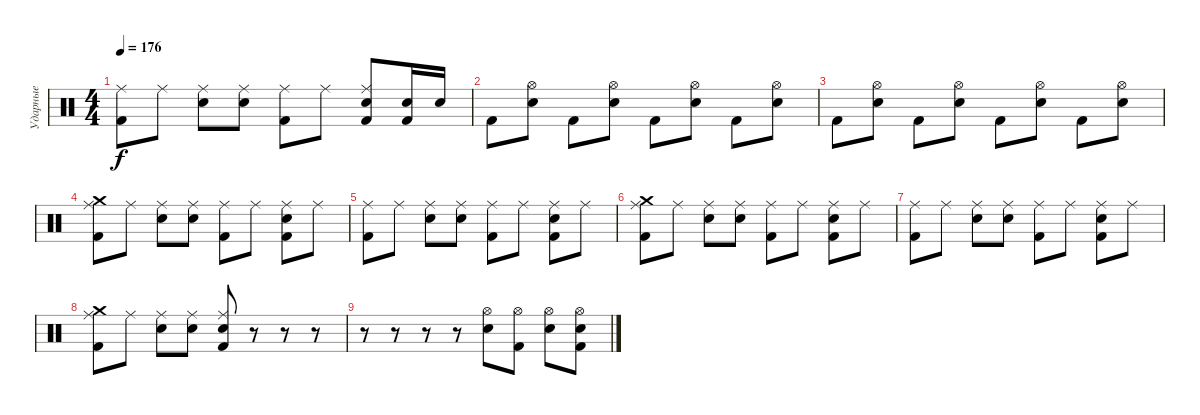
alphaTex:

\track ("Ударные" "Ударные") {instrument percussion}
\staff {score}
\articulation defaults
\ts (4 4)
\tempo 176
\clef neutral
\ks c
("Kick (hit) 2" "Ride (middle)").8{dy f} "Ride (middle)".8 ("Ride (middle)" "Electric Snare (hit)").8 ("Ride (middle)" "Electric Snare (hit)").8 ("Kick (hit) 2" "Ride (middle)").8 "Ride (middle)".8 ("Kick (hit) 2" "Ride (middle)" "Electric Snare (hit)").8 ("Kick (hit) 2" "Electric Snare (hit)").16 "Electric Snare (hit)".16 |
"Kick (hit) 2".8 ("Electric Snare (hit)" "Hi-Hat (open)").8 "Kick (hit) 2".8 ("Electric Snare (hit)" "Hi-Hat (open)").8 "Kick (hit) 2".8 ("Electric Snare (hit)" "Hi-Hat (open)").8 "Kick (hit) 2".8 ("Electric Snare (hit)" "Hi-Hat (open)").8 |
"Kick (hit) 2".8 ("Electric Snare (hit)" "Hi-Hat (open)").8 "Kick (hit) 2".8 ("Electric Snare (hit)" "Hi-Hat (open)").8 "Kick (hit) 2".8 ("Electric Snare (hit)" "Hi-Hat (open)").8 "Kick (hit) 2".8 ("Electric Snare (hit)" "Hi-Hat (open)").8 |
("Kick (hit) 2" "Ride (middle)" "Crash medium (hit)").8 "Ride (middle)".8 ("Ride (middle)" "Electric Snare (hit)").8 ("Ride (middle)" "Electric Snare (hit)").8 ("Kick (hit) 2" "Ride (middle)").8 "Ride (middle)".8 ("Kick (hit) 2" "Ride (middle)" "Electric Snare (hit)").8 "Ride (middle)".8 |
("Kick (hit) 2" "Ride (middle)").8 "Ride (middle)".8 ("Ride (middle)" "Electric Snare (hit)").8 ("Ride (middle)" "Electric Snare (hit)").8 ("Kick (hit) 2" "Ride (middle)").8 "Ride (middle)".8 ("Kick (hit) 2" "Ride (middle)" "Electric Snare (hit)").8 "Ride (middle)".8 |
("Kick (hit) 2" "Ride (middle)" "Crash medium (hit)").8 "Ride (middle)".8 ("Ride (middle)" "Electric Snare (hit)").8 ("Ride (middle)" "Electric Snare (hit)").8 ("Kick (hit) 2" "Ride (middle)").8 "Ride (middle)".8 ("Kick (hit) 2" "Ride (middle)" "Electric Snare (hit)").8 "Ride (middle)".8 |
("Kick (hit) 2" "Ride (middle)").8 "Ride (middle)".8 ("Ride (middle)" "Electric Snare (hit)").8 ("Ride (middle)" "Electric Snare (hit)").8 ("Kick (hit) 2" "Ride (middle)").8 "Ride (middle)".8 ("Kick (hit) 2" "Ride (middle)" "Electric Snare (hit)").8 "Ride (middle)".8 |
("Kick (hit) 2" "Ride (middle)" "Crash medium (hit)").8 "Ride (middle)".8 ("Ride (middle)" "Electric Snare (hit)").8 ("Ride (middle)" "Electric Snare (hit)").8 ("Kick (hit) 2" "Electric Snare (hit)" "Ride (middle)").8 r.8 r.8 r.8 |
r.8 r.8 r.8 r.8 ("Electric Snare (hit)" "Hi-Hat (open)").8 ("Kick (hit) 2" "Hi-Hat (open)").8 ("Electric Snare (hit)" "Hi-Hat (open)").8 ("Kick (hit) 2" "Electric Snare (hit)" "Hi-Hat (open)").8
